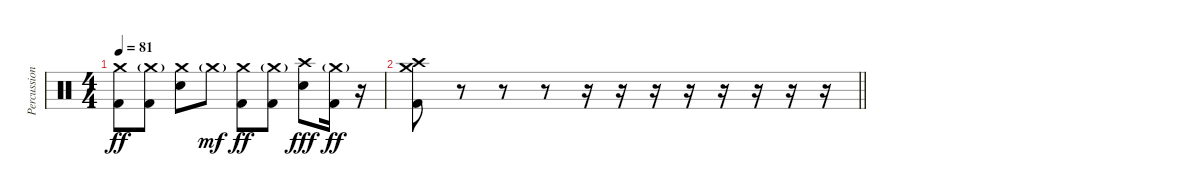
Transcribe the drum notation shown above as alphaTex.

\track ("Percussions" "Percussion") {instrument percussion bank 16}
\staff {score}
\articulation defaults
\ts (4 4)
\tempo 81
\clef neutral
\ks c
("Crash medium (hit)" "Kick (hit) 2").8{dy ff} ("Crash medium (hit)"{g} "Kick (hit) 2").8 ("Crash medium (hit)" "Electric Snare (hit)").8 "Crash medium (hit)"{g}.8{dy mf} ("Crash medium (hit)" "Kick (hit) 2").8{dy ff} ("Crash medium (hit)"{g} "Kick (hit) 2").8 ("Crash high (hit)" "Electric Snare (hit)").8{dy fff} ("Crash medium (hit)"{g} "Kick (hit) 2").16{dy ff} r.16 |
\barLineRight lightlight
("Crash medium (hit)" "Crash high (hit)" "Kick (hit) 2").8 r.8 r.8 r.8 r.16 r.16 r.16 r.16 r.16 r.16 r.16 r.16
